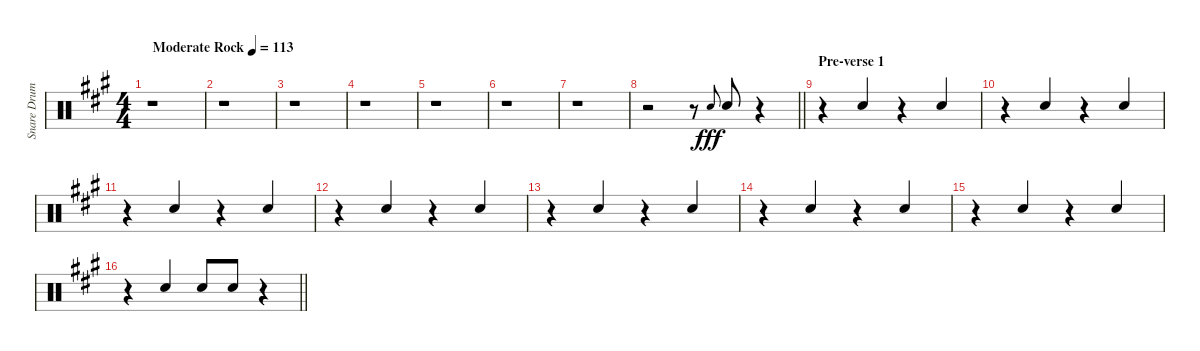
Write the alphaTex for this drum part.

\track ("Snare Drum" "Snare Drum") {instrument percussion}
\staff {score}
\articulation defaults
\ts (4 4)
\tempo (113 "Moderate Rock")
\clef neutral
\ks f#minor
r.1{dy fff} |
r.1 |
r.1 |
r.1 |
r.1 |
r.1 |
r.1 |
\barLineRight lightlight
r.2 r.8 "Electric Snare (hit)".8{gr onbeat} "Electric Snare (hit)".8{beam Up} r.4 |
\section ("" "Pre-verse 1")
r.4 "Electric Snare (hit)".4{beam Up} r.4 "Electric Snare (hit)".4{beam Up} |
r.4 "Electric Snare (hit)".4{beam Up} r.4 "Electric Snare (hit)".4{beam Up} |
r.4 "Electric Snare (hit)".4{beam Up} r.4 "Electric Snare (hit)".4{beam Up} |
r.4 "Electric Snare (hit)".4{beam Up} r.4 "Electric Snare (hit)".4{beam Up} |
r.4 "Electric Snare (hit)".4{beam Up} r.4 "Electric Snare (hit)".4{beam Up} |
r.4 "Electric Snare (hit)".4{beam Up} r.4 "Electric Snare (hit)".4{beam Up} |
r.4 "Electric Snare (hit)".4{beam Up} r.4 "Electric Snare (hit)".4{beam Up} |
\barLineRight lightlight
r.4 "Electric Snare (hit)".4{beam Up} "Electric Snare (hit)".8{beam Up} "Electric Snare (hit)".8{beam Up} r.4
